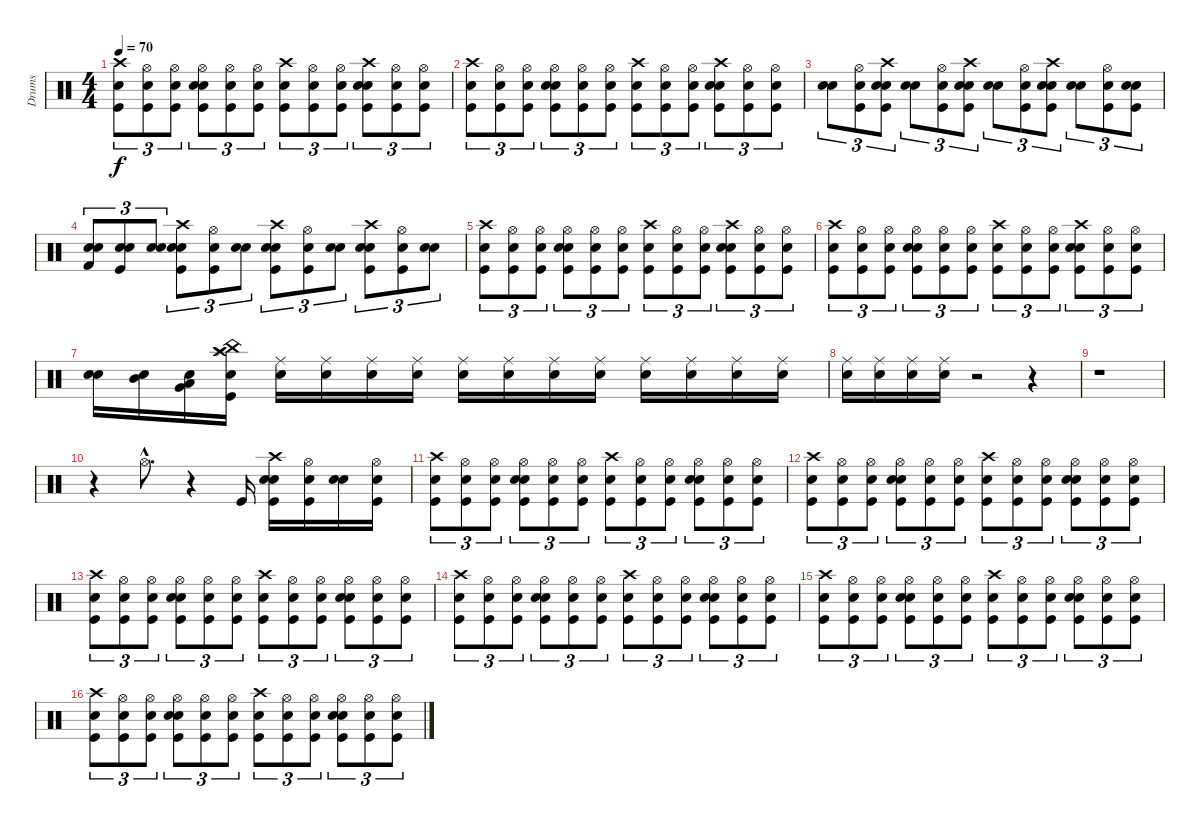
\track ("Drums" "Drums") {instrument percussion}
\staff {score}
\articulation defaults
\ts (4 4)
\tempo 70
\clef neutral
\ks c
("Snare (hit)" "Crash high (hit)" "Kick (hit)").8{tu (3 2) dy f} ("Snare (hit)" "Kick (hit)" "Hi-Hat (open)").8{tu (3 2)} ("Snare (hit)" "Kick (hit)" "Hi-Hat (open)").8{tu (3 2)} ("Snare (hit)" "Hi-Hat (open)" "Snare (hit) 2" "Kick (hit)").8{tu (3 2)} ("Snare (hit)" "Kick (hit)" "Hi-Hat (open)").8{tu (3 2)} ("Snare (hit)" "Kick (hit)" "Hi-Hat (open)").8{tu (3 2)} ("Snare (hit)" "Kick (hit)" "Crash high (hit)").8{tu (3 2)} ("Snare (hit)" "Kick (hit)" "Hi-Hat (open)").8{tu (3 2)} ("Snare (hit)" "Kick (hit)" "Hi-Hat (open)").8{tu (3 2)} ("Snare (hit)" "Crash high (hit)" "Snare (hit) 2" "Kick (hit)").8{tu (3 2)} ("Snare (hit)" "Kick (hit)" "Hi-Hat (open)").8{tu (3 2)} ("Snare (hit)" "Kick (hit)" "Hi-Hat (open)").8{tu (3 2)} |
("Snare (hit)" "Crash high (hit)" "Kick (hit)").8{tu (3 2)} ("Snare (hit)" "Kick (hit)" "Hi-Hat (open)").8{tu (3 2)} ("Snare (hit)" "Kick (hit)" "Hi-Hat (open)").8{tu (3 2)} ("Snare (hit)" "Hi-Hat (open)" "Snare (hit) 2" "Kick (hit)").8{tu (3 2)} ("Snare (hit)" "Kick (hit)" "Hi-Hat (open)").8{tu (3 2)} ("Snare (hit)" "Kick (hit)" "Hi-Hat (open)").8{tu (3 2)} ("Snare (hit)" "Kick (hit)" "Crash high (hit)").8{tu (3 2)} ("Snare (hit)" "Kick (hit)" "Hi-Hat (open)").8{tu (3 2)} ("Snare (hit)" "Kick (hit)" "Hi-Hat (open)").8{tu (3 2)} ("Snare (hit)" "Crash high (hit)" "Snare (hit) 2" "Kick (hit)").8{tu (3 2)} ("Snare (hit)" "Kick (hit)" "Hi-Hat (open)").8{tu (3 2)} ("Snare (hit)" "Kick (hit)" "Hi-Hat (open)").8{tu (3 2)} |
("Snare (hit)" "Snare (hit) 2").8{tu (3 2)} ("Snare (hit)" "Hi-Hat (open)" "Kick (hit)").8{tu (3 2)} ("Snare (hit)" "Kick (hit)" "Snare (hit) 2" "Crash high (hit)").8{tu (3 2)} ("Snare (hit)" "Snare (hit) 2").8{tu (3 2)} ("Snare (hit)" "Hi-Hat (open)" "Kick (hit)").8{tu (3 2)} ("Snare (hit)" "Kick (hit)" "Snare (hit) 2" "Crash high (hit)").8{tu (3 2)} ("Snare (hit)" "Snare (hit) 2").8{tu (3 2)} ("Snare (hit)" "Hi-Hat (open)" "Kick (hit)").8{tu (3 2)} ("Snare (hit)" "Kick (hit)" "Snare (hit) 2" "Crash high (hit)").8{tu (3 2)} ("Snare (hit)" "Snare (hit) 2").8{tu (3 2)} ("Snare (hit)" "Hi-Hat (open)" "Kick (hit)").8{tu (3 2)} ("Snare (hit)" "Snare (hit) 2" "Kick (hit)").8{tu (3 2)} |
("Snare (hit)" "Kick (hit) 2" "Snare (hit) 2").8{tu (3 2)} ("Snare (hit)" "Kick (hit)" "Snare (hit) 2").8{tu (3 2)} ("Snare (hit)" "Snare (hit) 2").8{tu (3 2)} ("Snare (hit)" "Kick (hit)" "Snare (hit) 2" "Crash high (hit)").8{tu (3 2)} ("Snare (hit)" "Hi-Hat (open)" "Kick (hit)").8{tu (3 2)} ("Snare (hit)" "Snare (hit) 2").8{tu (3 2)} ("Snare (hit)" "Kick (hit)" "Snare (hit) 2" "Crash high (hit)").8{tu (3 2)} ("Snare (hit)" "Hi-Hat (open)" "Kick (hit)").8{tu (3 2)} ("Snare (hit)" "Snare (hit) 2").8{tu (3 2)} ("Snare (hit)" "Kick (hit)" "Snare (hit) 2" "Crash high (hit)").8{tu (3 2)} ("Snare (hit)" "Hi-Hat (open)" "Kick (hit)").8{tu (3 2)} ("Snare (hit)" "Snare (hit) 2").8{tu (3 2)} |
("Snare (hit)" "Crash high (hit)" "Kick (hit)").8{tu (3 2)} ("Snare (hit)" "Kick (hit)" "Hi-Hat (open)").8{tu (3 2)} ("Snare (hit)" "Kick (hit)" "Hi-Hat (open)").8{tu (3 2)} ("Snare (hit)" "Hi-Hat (open)" "Snare (hit) 2" "Kick (hit)").8{tu (3 2)} ("Snare (hit)" "Kick (hit)" "Hi-Hat (open)").8{tu (3 2)} ("Snare (hit)" "Kick (hit)" "Hi-Hat (open)").8{tu (3 2)} ("Snare (hit)" "Kick (hit)" "Crash high (hit)").8{tu (3 2)} ("Snare (hit)" "Kick (hit)" "Hi-Hat (open)").8{tu (3 2)} ("Snare (hit)" "Kick (hit)" "Hi-Hat (open)").8{tu (3 2)} ("Snare (hit)" "Crash high (hit)" "Snare (hit) 2" "Kick (hit)").8{tu (3 2)} ("Snare (hit)" "Kick (hit)" "Hi-Hat (open)").8{tu (3 2)} ("Snare (hit)" "Kick (hit)" "Hi-Hat (open)").8{tu (3 2)} |
("Snare (hit)" "Crash high (hit)" "Kick (hit)").8{tu (3 2)} ("Snare (hit)" "Kick (hit)" "Hi-Hat (open)").8{tu (3 2)} ("Snare (hit)" "Kick (hit)" "Hi-Hat (open)").8{tu (3 2)} ("Snare (hit)" "Hi-Hat (open)" "Snare (hit) 2" "Kick (hit)").8{tu (3 2)} ("Snare (hit)" "Kick (hit)" "Hi-Hat (open)").8{tu (3 2)} ("Snare (hit)" "Kick (hit)" "Hi-Hat (open)").8{tu (3 2)} ("Snare (hit)" "Kick (hit)" "Crash high (hit)").8{tu (3 2)} ("Snare (hit)" "Kick (hit)" "Hi-Hat (open)").8{tu (3 2)} ("Snare (hit)" "Kick (hit)" "Hi-Hat (open)").8{tu (3 2)} ("Snare (hit)" "Crash high (hit)" "Snare (hit) 2" "Kick (hit)").8{tu (3 2)} ("Snare (hit)" "Kick (hit)" "Hi-Hat (open)").8{tu (3 2)} ("Snare (hit)" "Kick (hit)" "Hi-Hat (open)").8{tu (3 2)} |
("Snare (hit)" "Snare (hit) 2").16 ("Snare (hit)" "Mid Tom (hit)").16 ("Snare (hit)" "Very Low Tom (hit)" "Low Tom (hit)").16 ("Snare (hit)" "Kick (hit)" "China (hit)" "Splash (hit)" "Crash high (hit)").16 ("Snare (hit)" "Ride (middle)").16 ("Snare (hit)" "Ride (middle)").16 ("Snare (hit)" "Ride (middle)").16 ("Snare (hit)" "Ride (middle)").16 ("Snare (hit)" "Ride (middle)").16 ("Snare (hit)" "Ride (middle)").16 ("Snare (hit)" "Ride (middle)").16 ("Snare (hit)" "Ride (middle)").16 ("Snare (hit)" "Ride (middle)").16 ("Snare (hit)" "Ride (middle)").16 ("Snare (hit)" "Ride (middle)").16 ("Snare (hit)" "Ride (middle)").16 |
("Snare (hit)" "Ride (middle)").16 ("Snare (hit)" "Ride (middle)").16 ("Snare (hit)" "Ride (middle)").16 ("Snare (hit)" "Ride (middle)").16 r.2 r.4 |
r.1 |
r.4 "Hi-Hat (open)"{hac}.8{d} r.4 "Kick (hit)".16 ("Snare (hit)" "Kick (hit)" "Snare (hit) 2" "Crash high (hit)").16 ("Snare (hit)" "Hi-Hat (open)" "Kick (hit)").16 ("Snare (hit)" "Snare (hit) 2").16 ("Snare (hit)" "Hi-Hat (open)" "Kick (hit)").16 |
("Snare (hit)" "Crash high (hit)" "Kick (hit)").8{tu (3 2)} ("Snare (hit)" "Kick (hit)" "Hi-Hat (open)").8{tu (3 2)} ("Snare (hit)" "Kick (hit)" "Hi-Hat (open)").8{tu (3 2)} ("Snare (hit)" "Hi-Hat (open)" "Snare (hit) 2" "Kick (hit)").8{tu (3 2)} ("Snare (hit)" "Kick (hit)" "Hi-Hat (open)").8{tu (3 2)} ("Snare (hit)" "Kick (hit)" "Hi-Hat (open)").8{tu (3 2)} ("Snare (hit)" "Kick (hit)" "Crash high (hit)").8{tu (3 2)} ("Snare (hit)" "Kick (hit)" "Hi-Hat (open)").8{tu (3 2)} ("Snare (hit)" "Kick (hit)" "Hi-Hat (open)").8{tu (3 2)} ("Snare (hit)" "Hi-Hat (open)" "Snare (hit) 2" "Kick (hit)").8{tu (3 2)} ("Snare (hit)" "Kick (hit)" "Hi-Hat (open)").8{tu (3 2)} ("Snare (hit)" "Kick (hit)" "Hi-Hat (open)").8{tu (3 2)} |
("Snare (hit)" "Crash high (hit)" "Kick (hit)").8{tu (3 2)} ("Snare (hit)" "Kick (hit)" "Hi-Hat (open)").8{tu (3 2)} ("Snare (hit)" "Kick (hit)" "Hi-Hat (open)").8{tu (3 2)} ("Snare (hit)" "Hi-Hat (open)" "Snare (hit) 2" "Kick (hit)").8{tu (3 2)} ("Snare (hit)" "Kick (hit)" "Hi-Hat (open)").8{tu (3 2)} ("Snare (hit)" "Kick (hit)" "Hi-Hat (open)").8{tu (3 2)} ("Snare (hit)" "Kick (hit)" "Crash high (hit)").8{tu (3 2)} ("Snare (hit)" "Kick (hit)" "Hi-Hat (open)").8{tu (3 2)} ("Snare (hit)" "Kick (hit)" "Hi-Hat (open)").8{tu (3 2)} ("Snare (hit)" "Hi-Hat (open)" "Snare (hit) 2" "Kick (hit)").8{tu (3 2)} ("Snare (hit)" "Kick (hit)" "Hi-Hat (open)").8{tu (3 2)} ("Snare (hit)" "Kick (hit)" "Hi-Hat (open)").8{tu (3 2)} |
("Snare (hit)" "Crash high (hit)" "Kick (hit)").8{tu (3 2)} ("Snare (hit)" "Kick (hit)" "Hi-Hat (open)").8{tu (3 2)} ("Snare (hit)" "Kick (hit)" "Hi-Hat (open)").8{tu (3 2)} ("Snare (hit)" "Hi-Hat (open)" "Snare (hit) 2" "Kick (hit)").8{tu (3 2)} ("Snare (hit)" "Kick (hit)" "Hi-Hat (open)").8{tu (3 2)} ("Snare (hit)" "Kick (hit)" "Hi-Hat (open)").8{tu (3 2)} ("Snare (hit)" "Kick (hit)" "Crash high (hit)").8{tu (3 2)} ("Snare (hit)" "Kick (hit)" "Hi-Hat (open)").8{tu (3 2)} ("Snare (hit)" "Kick (hit)" "Hi-Hat (open)").8{tu (3 2)} ("Snare (hit)" "Hi-Hat (open)" "Snare (hit) 2" "Kick (hit)").8{tu (3 2)} ("Snare (hit)" "Kick (hit)" "Hi-Hat (open)").8{tu (3 2)} ("Snare (hit)" "Kick (hit)" "Hi-Hat (open)").8{tu (3 2)} |
("Snare (hit)" "Crash high (hit)" "Kick (hit)").8{tu (3 2)} ("Snare (hit)" "Kick (hit)" "Hi-Hat (open)").8{tu (3 2)} ("Snare (hit)" "Kick (hit)" "Hi-Hat (open)").8{tu (3 2)} ("Snare (hit)" "Hi-Hat (open)" "Snare (hit) 2" "Kick (hit)").8{tu (3 2)} ("Snare (hit)" "Kick (hit)" "Hi-Hat (open)").8{tu (3 2)} ("Snare (hit)" "Kick (hit)" "Hi-Hat (open)").8{tu (3 2)} ("Snare (hit)" "Kick (hit)" "Crash high (hit)").8{tu (3 2)} ("Snare (hit)" "Kick (hit)" "Hi-Hat (open)").8{tu (3 2)} ("Snare (hit)" "Kick (hit)" "Hi-Hat (open)").8{tu (3 2)} ("Snare (hit)" "Hi-Hat (open)" "Snare (hit) 2" "Kick (hit)").8{tu (3 2)} ("Snare (hit)" "Kick (hit)" "Hi-Hat (open)").8{tu (3 2)} ("Snare (hit)" "Kick (hit)" "Hi-Hat (open)").8{tu (3 2)} |
("Snare (hit)" "Crash high (hit)" "Kick (hit)").8{tu (3 2)} ("Snare (hit)" "Kick (hit)" "Hi-Hat (open)").8{tu (3 2)} ("Snare (hit)" "Kick (hit)" "Hi-Hat (open)").8{tu (3 2)} ("Snare (hit)" "Hi-Hat (open)" "Snare (hit) 2" "Kick (hit)").8{tu (3 2)} ("Snare (hit)" "Kick (hit)" "Hi-Hat (open)").8{tu (3 2)} ("Snare (hit)" "Kick (hit)" "Hi-Hat (open)").8{tu (3 2)} ("Snare (hit)" "Kick (hit)" "Crash high (hit)").8{tu (3 2)} ("Snare (hit)" "Kick (hit)" "Hi-Hat (open)").8{tu (3 2)} ("Snare (hit)" "Kick (hit)" "Hi-Hat (open)").8{tu (3 2)} ("Snare (hit)" "Hi-Hat (open)" "Snare (hit) 2" "Kick (hit)").8{tu (3 2)} ("Snare (hit)" "Kick (hit)" "Hi-Hat (open)").8{tu (3 2)} ("Snare (hit)" "Kick (hit)" "Hi-Hat (open)").8{tu (3 2)} |
("Snare (hit)" "Crash high (hit)" "Kick (hit)").8{tu (3 2)} ("Snare (hit)" "Kick (hit)" "Hi-Hat (open)").8{tu (3 2)} ("Snare (hit)" "Kick (hit)" "Hi-Hat (open)").8{tu (3 2)} ("Snare (hit)" "Hi-Hat (open)" "Snare (hit) 2" "Kick (hit)").8{tu (3 2)} ("Snare (hit)" "Kick (hit)" "Hi-Hat (open)").8{tu (3 2)} ("Snare (hit)" "Kick (hit)" "Hi-Hat (open)").8{tu (3 2)} ("Snare (hit)" "Kick (hit)" "Crash high (hit)").8{tu (3 2)} ("Snare (hit)" "Kick (hit)" "Hi-Hat (open)").8{tu (3 2)} ("Snare (hit)" "Kick (hit)" "Hi-Hat (open)").8{tu (3 2)} ("Snare (hit)" "Hi-Hat (open)" "Snare (hit) 2" "Kick (hit)").8{tu (3 2)} ("Snare (hit)" "Kick (hit)" "Hi-Hat (open)").8{tu (3 2)} ("Snare (hit)" "Kick (hit)" "Hi-Hat (open)").8{tu (3 2)}
